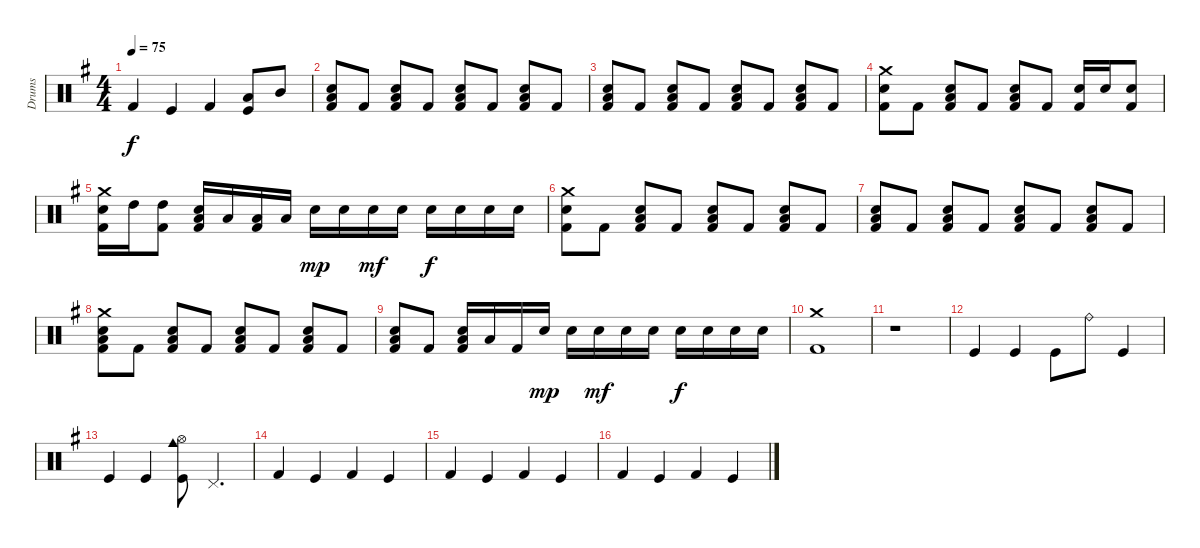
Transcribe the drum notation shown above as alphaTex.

\track ("Drums " "Drums ") {instrument percussion}
\staff {score}
\articulation defaults
\ts (4 4)
\tempo 75
\clef neutral
\ks eminor "Kick (hit) 2".4{dy f} "Kick (hit)".4 "Kick (hit) 2".4
("Low Tom (hit)" "Kick (hit)").8 "Mid Tom (hit)".8 |
("Electric Snare (hit)" "Low Floor Tom (hit)" "Kick (hit) 2").8 "Kick (hit) 2".8 ("Electric Snare (hit)" "Low Floor Tom (hit)" "Kick (hit) 2").8 "Kick (hit) 2".8 ("Electric Snare (hit)" "Low Floor Tom (hit)" "Kick (hit) 2").8 "Kick (hit) 2".8 ("Electric Snare (hit)" "Low Floor Tom (hit)" "Kick (hit) 2").8 "Kick (hit) 2".8 |
("Electric Snare (hit)" "Low Floor Tom (hit)" "Kick (hit) 2").8 "Kick (hit) 2".8 ("Electric Snare (hit)" "Low Floor Tom (hit)" "Kick (hit) 2").8 "Kick (hit) 2".8 ("Electric Snare (hit)" "Low Floor Tom (hit)" "Kick (hit) 2").8 "Kick (hit) 2".8 ("Electric Snare (hit)" "Low Floor Tom (hit)" "Kick (hit) 2").8 "Kick (hit) 2".8 |
("Crash medium (hit)" "Electric Snare (hit)" "Kick (hit) 2").8 "Kick (hit) 2".8 ("Electric Snare (hit)" "Low Floor Tom (hit)" "Kick (hit) 2").8 "Kick (hit) 2".8 ("Electric Snare (hit)" "Low Floor Tom (hit)" "Kick (hit) 2").8 "Kick (hit) 2".8 ("Snare (hit) 2" "Kick (hit) 2").16 "Snare (hit) 2".16 ("Snare (hit) 2" "Kick (hit) 2").8 |
("Crash medium (hit)" "Electric Snare (hit)" "Kick (hit) 2").16 "High Tom (hit)".16 ("High Tom (hit)" "Kick (hit) 2").8 ("Electric Snare (hit)" "Low Floor Tom (hit)" "Kick (hit) 2").16 "Low Floor Tom (hit)".16 ("Low Floor Tom (hit)" "Kick (hit) 2").16 "Low Floor Tom (hit)".16 "Electric Snare (hit)".16{dy mp} "Electric Snare (hit)".16 "Electric Snare (hit)".16{dy mf} "Electric Snare (hit)".16 "Electric Snare (hit)".16{dy f} "Electric Snare (hit)".16 "Electric Snare (hit)".16 "Electric Snare (hit)".16 |
("Crash medium (hit)" "Electric Snare (hit)" "Kick (hit) 2").8 "Kick (hit) 2".8 ("Electric Snare (hit)" "Low Floor Tom (hit)" "Kick (hit) 2").8 "Kick (hit) 2".8 ("Electric Snare (hit)" "Low Floor Tom (hit)" "Kick (hit) 2").8 "Kick (hit) 2".8 ("Electric Snare (hit)" "Low Floor Tom (hit)" "Kick (hit) 2").8 "Kick (hit) 2".8 |
("Electric Snare (hit)" "Low Floor Tom (hit)" "Kick (hit) 2").8 "Kick (hit) 2".8 ("Electric Snare (hit)" "Low Floor Tom (hit)" "Kick (hit) 2").8 "Kick (hit) 2".8 ("Electric Snare (hit)" "Low Floor Tom (hit)" "Kick (hit) 2").8 "Kick (hit) 2".8 ("Electric Snare (hit)" "Low Floor Tom (hit)" "Kick (hit) 2").8 "Kick (hit) 2".8 |
("Crash medium (hit)" "Electric Snare (hit)" "Low Floor Tom (hit)" "Kick (hit) 2").8 "Kick (hit) 2".8 ("Electric Snare (hit)" "Low Floor Tom (hit)" "Kick (hit) 2").8 "Kick (hit) 2".8 ("Electric Snare (hit)" "Low Floor Tom (hit)" "Kick (hit) 2").8 "Kick (hit) 2".8 ("Electric Snare (hit)" "Low Floor Tom (hit)" "Kick (hit) 2").8 "Kick (hit) 2".8 |
("Electric Snare (hit)" "Low Floor Tom (hit)" "Kick (hit) 2").8 "Kick (hit) 2".8 ("Electric Snare (hit)" "Low Floor Tom (hit)" "Kick (hit) 2").16 "Low Floor Tom (hit)".16 "Kick (hit) 2".16 "Electric Snare (hit)".16{dy mp} "Snare (hit) 2".16 "Snare (hit) 2".16{dy mf} "Snare (hit) 2".16 "Snare (hit) 2".16 "Snare (hit) 2".16{dy f} "Snare (hit) 2".16 "Snare (hit) 2".16 "Snare (hit) 2".16 |
("Crash medium (hit)" "Kick (hit) 2").1 |
r.1 |
"Kick (hit)".4 "Kick (hit)".4 "Kick (hit)".8 "Ride (bell)".8 "Kick (hit)".4 |
"Kick (hit)".4 "Kick (hit)".4 ("Hi-Hat (open)" "Cowbell medium (hit)" "Kick (hit)").8 "Pedal Hi-Hat (hit)".4{d} |
"Kick (hit) 2".4 "Kick (hit)".4 "Kick (hit) 2".4 "Kick (hit)".4 |
"Kick (hit) 2".4 "Kick (hit)".4 "Kick (hit) 2".4 "Kick (hit)".4 |
"Kick (hit) 2".4 "Kick (hit)".4 "Kick (hit) 2".4 "Kick (hit)".4
